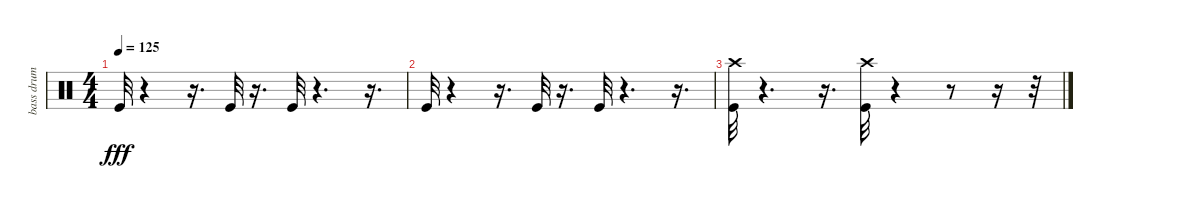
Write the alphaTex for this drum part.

\track ("bass drum" "bass drum") {instrument percussion}
\staff {score}
\articulation defaults
\ts (4 4)
\tempo 125
\clef neutral
\ks c "Kick (hit)".32{dy fff}
r.4 r.16{d} "Kick (hit)".32 r.16{d} "Kick (hit)".32 r.4{d} r.16{d} |
"Kick (hit)".32 r.4 r.16{d} "Kick (hit)".32 r.16{d} "Kick (hit)".32 r.4{d} r.16{d} |
("Crash high (hit)" "Kick (hit)").32 r.4{d} r.16{d} ("Crash high (hit)" "Kick (hit)").32 r.4 r.8 r.16 r.32
